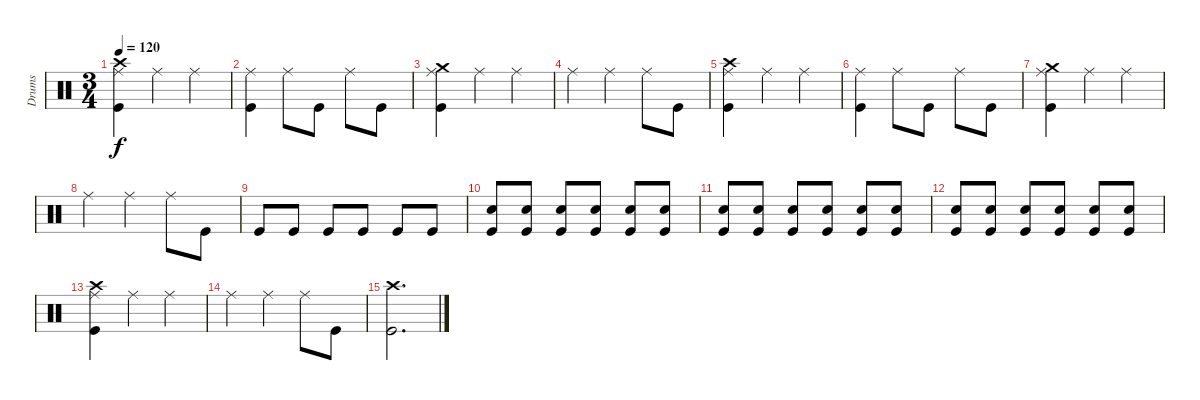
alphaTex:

\track ("Drums" "Drums") {instrument percussion}
\staff {score}
\articulation defaults
\ts (3 4)
\tempo 120
\clef neutral
\ks c
("Crash high (hit)" "Ride (middle)" "Kick (hit)").4{dy f} "Ride (middle)".4 "Ride (middle)".4 |
("Ride (middle)" "Kick (hit)").4 "Ride (middle)".8 "Kick (hit)".8 "Ride (middle)".8 "Kick (hit)".8 |
("Crash medium (hit)" "Ride (middle)" "Kick (hit)").4 "Ride (middle)".4 "Ride (middle)".4 |
"Ride (middle)".4 "Ride (middle)".4 "Ride (middle)".8 "Kick (hit)".8 |
("Crash high (hit)" "Ride (middle)" "Kick (hit)").4 "Ride (middle)".4 "Ride (middle)".4 |
("Ride (middle)" "Kick (hit)").4 "Ride (middle)".8 "Kick (hit)".8 "Ride (middle)".8 "Kick (hit)".8 |
("Crash medium (hit)" "Ride (middle)" "Kick (hit)").4 "Ride (middle)".4 "Ride (middle)".4 |
"Ride (middle)".4 "Ride (middle)".4 "Ride (middle)".8 "Kick (hit)".8 |
"Kick (hit)".8 "Kick (hit)".8 "Kick (hit)".8 "Kick (hit)".8 "Kick (hit)".8 "Kick (hit)".8 |
("Electric Snare (hit)" "Kick (hit)").8 ("Electric Snare (hit)" "Kick (hit)").8 ("Electric Snare (hit)" "Kick (hit)").8 ("Electric Snare (hit)" "Kick (hit)").8 ("Electric Snare (hit)" "Kick (hit)").8 ("Electric Snare (hit)" "Kick (hit)").8 |
("Electric Snare (hit)" "Kick (hit)").8 ("Electric Snare (hit)" "Kick (hit)").8 ("Electric Snare (hit)" "Kick (hit)").8 ("Electric Snare (hit)" "Kick (hit)").8 ("Electric Snare (hit)" "Kick (hit)").8 ("Electric Snare (hit)" "Kick (hit)").8 |
("Electric Snare (hit)" "Kick (hit)").8 ("Electric Snare (hit)" "Kick (hit)").8 ("Electric Snare (hit)" "Kick (hit)").8 ("Electric Snare (hit)" "Kick (hit)").8 ("Electric Snare (hit)" "Kick (hit)").8 ("Electric Snare (hit)" "Kick (hit)").8 |
("Crash high (hit)" "Ride (middle)" "Kick (hit)").4 "Ride (middle)".4 "Ride (middle)".4 |
"Ride (middle)".4 "Ride (middle)".4 "Ride (middle)".8 "Kick (hit)".8 |
("Crash high (hit)" "Kick (hit)").2{d}
